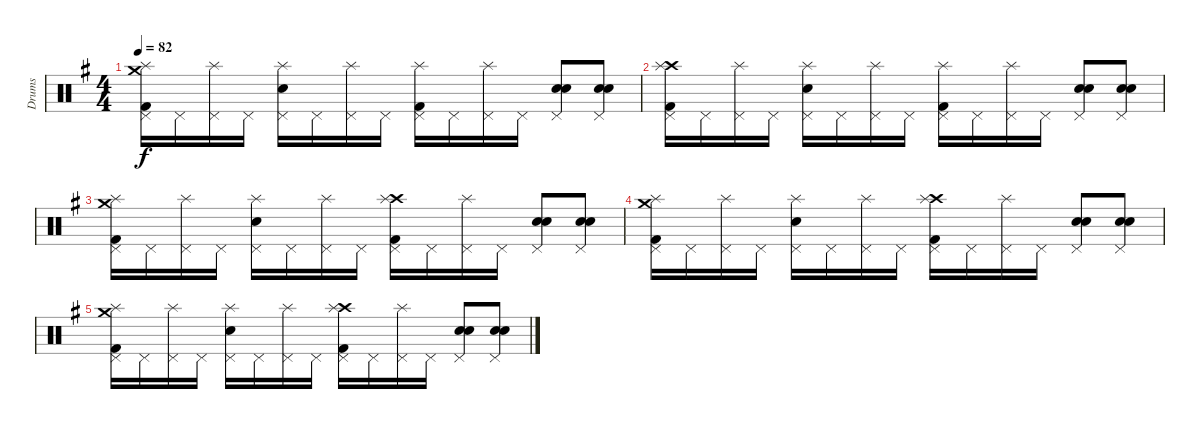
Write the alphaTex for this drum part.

\track ("Drums" "Drums") {instrument percussion}
\staff {score}
\articulation defaults
\ts (4 4)
\tempo 82
\clef neutral
\ks eminor
("Crash medium (hit)" "Pedal Hi-Hat (hit)" "Splash (hit)" "Kick (hit) 2").16{dy f volume 10} "Pedal Hi-Hat (hit)".16{volume 10} ("Pedal Hi-Hat (hit)" "Splash (hit)").16{volume 10} "Pedal Hi-Hat (hit)".16{volume 10} ("Pedal Hi-Hat (hit)" "Splash (hit)" "Snare (hit) 2").16{volume 10} "Pedal Hi-Hat (hit)".16{volume 9} ("Pedal Hi-Hat (hit)" "Splash (hit)").16{volume 9} "Pedal Hi-Hat (hit)".16{volume 9} ("Pedal Hi-Hat (hit)" "Splash (hit)" "Kick (hit) 2").16{volume 9} "Pedal Hi-Hat (hit)".16{volume 9} ("Pedal Hi-Hat (hit)" "Splash (hit)").16{volume 9} "Pedal Hi-Hat (hit)".16{volume 9} ("Pedal Hi-Hat (hit)" "Snare (hit) 2" "Electric Snare (hit)").8{volume 8} ("Pedal Hi-Hat (hit)" "Snare (hit) 2" "Electric Snare (hit)").8{volume 8} |
("Crash high (hit)" "Pedal Hi-Hat (hit)" "Splash (hit)" "Kick (hit) 2").16{volume 8} "Pedal Hi-Hat (hit)".16{volume 8} ("Pedal Hi-Hat (hit)" "Splash (hit)").16{volume 8} "Pedal Hi-Hat (hit)".16{volume 8} ("Pedal Hi-Hat (hit)" "Splash (hit)" "Snare (hit) 2").16{volume 8} "Pedal Hi-Hat (hit)".16{volume 7} ("Pedal Hi-Hat (hit)" "Splash (hit)").16{volume 7} "Pedal Hi-Hat (hit)".16{volume 7} ("Pedal Hi-Hat (hit)" "Splash (hit)" "Kick (hit) 2").16{volume 7} "Pedal Hi-Hat (hit)".16{volume 7} ("Pedal Hi-Hat (hit)" "Splash (hit)").16{volume 7} "Pedal Hi-Hat (hit)".16{volume 7} ("Pedal Hi-Hat (hit)" "Snare (hit) 2" "Electric Snare (hit)").8{volume 6} ("Pedal Hi-Hat (hit)" "Snare (hit) 2" "Electric Snare (hit)").8{volume 6} |
("Crash medium (hit)" "Pedal Hi-Hat (hit)" "Splash (hit)" "Kick (hit) 2").16{volume 6} "Pedal Hi-Hat (hit)".16{volume 6} ("Pedal Hi-Hat (hit)" "Splash (hit)").16{volume 6} "Pedal Hi-Hat (hit)".16{volume 6} ("Pedal Hi-Hat (hit)" "Splash (hit)" "Snare (hit) 2").16{volume 6} "Pedal Hi-Hat (hit)".16{volume 5} ("Pedal Hi-Hat (hit)" "Splash (hit)").16{volume 5} "Pedal Hi-Hat (hit)".16{volume 5} ("Crash high (hit)" "Pedal Hi-Hat (hit)" "Splash (hit)" "Kick (hit) 2").16{volume 5} "Pedal Hi-Hat (hit)".16{volume 5} ("Pedal Hi-Hat (hit)" "Splash (hit)").16{volume 5} "Pedal Hi-Hat (hit)".16{volume 5} ("Pedal Hi-Hat (hit)" "Snare (hit) 2" "Electric Snare (hit)").8{volume 4} ("Pedal Hi-Hat (hit)" "Snare (hit) 2" "Electric Snare (hit)").8{volume 4} |
("Crash medium (hit)" "Pedal Hi-Hat (hit)" "Splash (hit)" "Kick (hit) 2").16{volume 4} "Pedal Hi-Hat (hit)".16{volume 4} ("Pedal Hi-Hat (hit)" "Splash (hit)").16{volume 4} "Pedal Hi-Hat (hit)".16 ("Pedal Hi-Hat (hit)" "Splash (hit)" "Snare (hit) 2").16{volume 4} "Pedal Hi-Hat (hit)".16{volume 3} ("Pedal Hi-Hat (hit)" "Splash (hit)").16{volume 3} "Pedal Hi-Hat (hit)".16 ("Crash high (hit)" "Pedal Hi-Hat (hit)" "Splash (hit)" "Kick (hit) 2").16{volume 3} "Pedal Hi-Hat (hit)".16{volume 3} ("Pedal Hi-Hat (hit)" "Splash (hit)").16{volume 3} "Pedal Hi-Hat (hit)".16 ("Pedal Hi-Hat (hit)" "Snare (hit) 2" "Electric Snare (hit)").8{volume 3} ("Pedal Hi-Hat (hit)" "Snare (hit) 2" "Electric Snare (hit)").8{volume 2} |
("Crash medium (hit)" "Pedal Hi-Hat (hit)" "Splash (hit)" "Kick (hit) 2").16{volume 2} "Pedal Hi-Hat (hit)".16{volume 2} ("Pedal Hi-Hat (hit)" "Splash (hit)").16{volume 2} "Pedal Hi-Hat (hit)".16 ("Pedal Hi-Hat (hit)" "Splash (hit)" "Snare (hit) 2").16{volume 2} "Pedal Hi-Hat (hit)".16{volume 2} ("Pedal Hi-Hat (hit)" "Splash (hit)").16{volume 1} "Pedal Hi-Hat (hit)".16{volume 1} ("Crash high (hit)" "Pedal Hi-Hat (hit)" "Splash (hit)" "Kick (hit) 2").16{volume 1} "Pedal Hi-Hat (hit)".16{volume 1} ("Pedal Hi-Hat (hit)" "Splash (hit)").16{volume 1} "Pedal Hi-Hat (hit)".16{volume 1} ("Pedal Hi-Hat (hit)" "Snare (hit) 2" "Electric Snare (hit)").8{volume 1} ("Pedal Hi-Hat (hit)" "Snare (hit) 2" "Electric Snare (hit)").8{volume 0}
